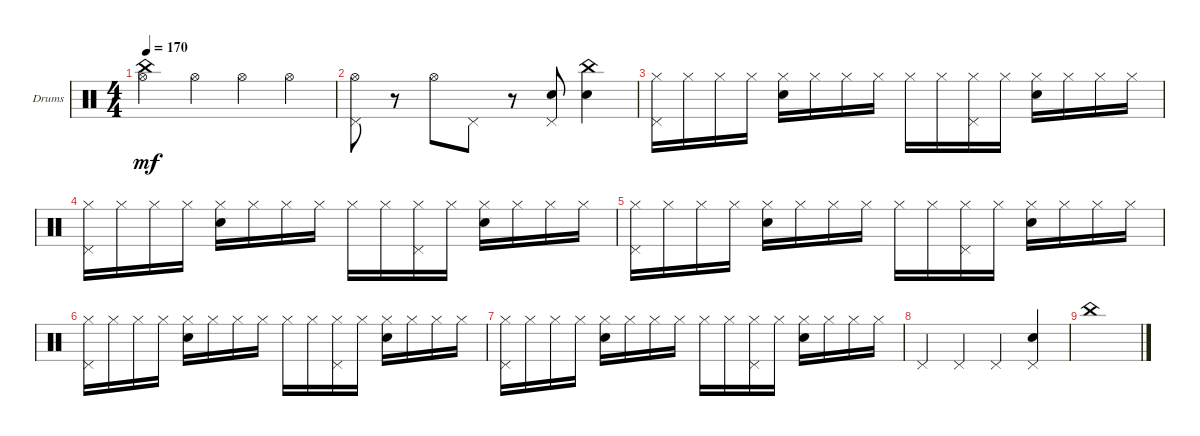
\defaultSystemsLayout 4
\bracketExtendMode groupsimilarinstruments
\firstSystemTrackNameOrientation horizontal
\otherSystemsTrackNameOrientation horizontal
\track ("Drumkit" "Drums") {instrument percussion}
\staff {score}
\articulation defaults
\ts (4 4)
\tempo 170
\clef neutral
\scale
0.333333
\ks c
("China (hit)" "Hi-Hat (open)").4{dy mf} "Hi-Hat (open)".4 "Hi-Hat (open)".4 "Hi-Hat (open)".4 |
\scale
0.333333 ("Pedal Hi-Hat (hit)" "Hi-Hat (open)").8 r.8 "Hi-Hat (open)".8 "Pedal Hi-Hat (hit)".8 r.8 ("Pedal Hi-Hat (hit)" "Snare (hit) 2").8 ("Snare (hit) 2" "China (hit)").4 |
\scale
0.333333 ("Hi-Hat (closed)" "Pedal Hi-Hat (hit)").16 "Hi-Hat (closed)".16 "Hi-Hat (closed)".16 "Hi-Hat (closed)".16 ("Hi-Hat (closed)" "Snare (hit) 2").16 "Hi-Hat (closed)".16 "Hi-Hat (closed)".16 "Hi-Hat (closed)".16 "Hi-Hat (closed)".16 "Hi-Hat (closed)".16 ("Hi-Hat (closed)" "Pedal Hi-Hat (hit)").16 "Hi-Hat (closed)".16 ("Hi-Hat (closed)" "Snare (hit) 2").16 "Hi-Hat (closed)".16 "Hi-Hat (closed)".16 "Hi-Hat (closed)".16 |
\scale
0.333333 ("Hi-Hat (closed)" "Pedal Hi-Hat (hit)").16 "Hi-Hat (closed)".16 "Hi-Hat (closed)".16 "Hi-Hat (closed)".16 ("Hi-Hat (closed)" "Snare (hit) 2").16 "Hi-Hat (closed)".16 "Hi-Hat (closed)".16 "Hi-Hat (closed)".16 "Hi-Hat (closed)".16 "Hi-Hat (closed)".16 ("Hi-Hat (closed)" "Pedal Hi-Hat (hit)").16 "Hi-Hat (closed)".16 ("Hi-Hat (closed)" "Snare (hit) 2").16 "Hi-Hat (closed)".16 "Hi-Hat (closed)".16 "Hi-Hat (closed)".16 |
\scale
0.333333 ("Hi-Hat (closed)" "Pedal Hi-Hat (hit)").16 "Hi-Hat (closed)".16 "Hi-Hat (closed)".16 "Hi-Hat (closed)".16 ("Hi-Hat (closed)" "Snare (hit) 2").16 "Hi-Hat (closed)".16 "Hi-Hat (closed)".16 "Hi-Hat (closed)".16 "Hi-Hat (closed)".16 "Hi-Hat (closed)".16 ("Hi-Hat (closed)" "Pedal Hi-Hat (hit)").16 "Hi-Hat (closed)".16 ("Hi-Hat (closed)" "Snare (hit) 2").16 "Hi-Hat (closed)".16 "Hi-Hat (closed)".16 "Hi-Hat (closed)".16 |
\scale
0.333333 ("Hi-Hat (closed)" "Pedal Hi-Hat (hit)").16 "Hi-Hat (closed)".16 "Hi-Hat (closed)".16 "Hi-Hat (closed)".16 ("Hi-Hat (closed)" "Snare (hit) 2").16 "Hi-Hat (closed)".16 "Hi-Hat (closed)".16 "Hi-Hat (closed)".16 "Hi-Hat (closed)".16 "Hi-Hat (closed)".16 ("Hi-Hat (closed)" "Pedal Hi-Hat (hit)").16 "Hi-Hat (closed)".16 ("Hi-Hat (closed)" "Snare (hit) 2").16 "Hi-Hat (closed)".16 "Hi-Hat (closed)".16 "Hi-Hat (closed)".16 |
\scale
0.333333 ("Hi-Hat (closed)" "Pedal Hi-Hat (hit)").16 "Hi-Hat (closed)".16 "Hi-Hat (closed)".16 "Hi-Hat (closed)".16 ("Hi-Hat (closed)" "Snare (hit) 2").16 "Hi-Hat (closed)".16 "Hi-Hat (closed)".16 "Hi-Hat (closed)".16 "Hi-Hat (closed)".16 "Hi-Hat (closed)".16 ("Hi-Hat (closed)" "Pedal Hi-Hat (hit)").16 "Hi-Hat (closed)".16 ("Hi-Hat (closed)" "Snare (hit) 2").16 "Hi-Hat (closed)".16 "Hi-Hat (closed)".16 "Hi-Hat (closed)".16 |
\scale
0.333333 "Pedal Hi-Hat (hit)".4 "Pedal Hi-Hat (hit)".4 "Pedal Hi-Hat (hit)".4 ("Pedal Hi-Hat (hit)" "Snare (hit) 2").4 |
\scale
0.333333 "China (hit)".1 |
\scale
0.333333 |
\scale
0.333333 |
\scale
0.333333 |
\scale
0.333333 |
\scale
0.333333 |
\scale
0.333333 |
\scale
0.333333
